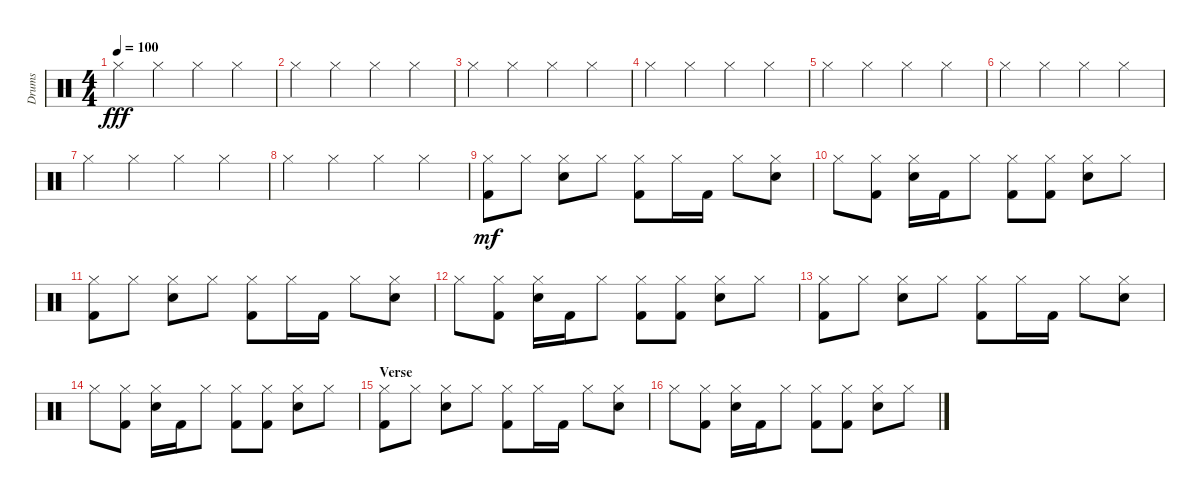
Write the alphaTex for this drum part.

\defaultSystemsLayout 4
\bracketExtendMode groupsimilarinstruments
\otherSystemsTrackNameOrientation horizontal
\track ("Prakarsh" "Drums") {instrument percussion}
\staff {score}
\articulation defaults
\ts (4 4)
\tempo 100
\clef neutral
\ks c "Hi-Hat (closed)".4{dy fff beam Down} "Hi-Hat (closed)".4{beam Down} "Hi-Hat (closed)".4{beam Down} "Hi-Hat (closed)".4{beam Down}
|
"Hi-Hat (closed)".4{beam Down} "Hi-Hat (closed)".4{beam Down} "Hi-Hat (closed)".4{beam Down} "Hi-Hat (closed)".4{beam Down} |
"Hi-Hat (closed)".4{beam Down} "Hi-Hat (closed)".4{beam Down} "Hi-Hat (closed)".4{beam Down} "Hi-Hat (closed)".4{beam Down} |
"Hi-Hat (closed)".4{beam Down} "Hi-Hat (closed)".4{beam Down} "Hi-Hat (closed)".4{beam Down} "Hi-Hat (closed)".4{beam Down} |
"Hi-Hat (closed)".4{beam Down} "Hi-Hat (closed)".4{beam Down} "Hi-Hat (closed)".4{beam Down} "Hi-Hat (closed)".4{beam Down} |
"Hi-Hat (closed)".4{beam Down} "Hi-Hat (closed)".4{beam Down} "Hi-Hat (closed)".4{beam Down} "Hi-Hat (closed)".4{beam Down} |
"Hi-Hat (closed)".4{beam Down} "Hi-Hat (closed)".4{beam Down} "Hi-Hat (closed)".4{beam Down} "Hi-Hat (closed)".4{beam Down} |
"Hi-Hat (closed)".4{beam Down} "Hi-Hat (closed)".4{beam Down} "Hi-Hat (closed)".4{beam Down} "Hi-Hat (closed)".4{beam Down} |
("Hi-Hat (closed)" "Kick (hit) 2").8{dy mf beam Down} "Hi-Hat (closed)".8{beam Down} ("Hi-Hat (closed)" "Snare (hit) 2").8{beam Down} "Hi-Hat (closed)".8{beam Down} ("Hi-Hat (closed)" "Kick (hit) 2").8{beam Down} "Hi-Hat (closed)".16{beam Down} "Kick (hit) 2".16{beam Down} "Hi-Hat (closed)".8{beam Down} ("Hi-Hat (closed)" "Snare (hit) 2").8{beam Down} |
"Hi-Hat (closed)".8{beam Down} ("Hi-Hat (closed)" "Kick (hit) 2").8{beam Down} ("Hi-Hat (closed)" "Snare (hit) 2").16{beam Down} "Kick (hit) 2".16{beam Down} "Hi-Hat (closed)".8{beam Down} ("Hi-Hat (closed)" "Kick (hit) 2").8{beam Down} ("Hi-Hat (closed)" "Kick (hit) 2").8{beam Down} ("Hi-Hat (closed)" "Snare (hit) 2").8{beam Down} "Hi-Hat (closed)".8{beam Down} |
("Hi-Hat (closed)" "Kick (hit) 2").8{beam Down} "Hi-Hat (closed)".8{beam Down} ("Hi-Hat (closed)" "Snare (hit) 2").8{beam Down} "Hi-Hat (closed)".8{beam Down} ("Hi-Hat (closed)" "Kick (hit) 2").8{beam Down} "Hi-Hat (closed)".16{beam Down} "Kick (hit) 2".16{beam Down} "Hi-Hat (closed)".8{beam Down} ("Hi-Hat (closed)" "Snare (hit) 2").8{beam Down} |
"Hi-Hat (closed)".8{beam Down} ("Hi-Hat (closed)" "Kick (hit) 2").8{beam Down} ("Hi-Hat (closed)" "Snare (hit) 2").16{beam Down} "Kick (hit) 2".16{beam Down} "Hi-Hat (closed)".8{beam Down} ("Hi-Hat (closed)" "Kick (hit) 2").8{beam Down} ("Hi-Hat (closed)" "Kick (hit) 2").8{beam Down} ("Hi-Hat (closed)" "Snare (hit) 2").8{beam Down} "Hi-Hat (closed)".8{beam Down} |
("Hi-Hat (closed)" "Kick (hit) 2").8{beam Down} "Hi-Hat (closed)".8{beam Down} ("Hi-Hat (closed)" "Snare (hit) 2").8{beam Down} "Hi-Hat (closed)".8{beam Down} ("Hi-Hat (closed)" "Kick (hit) 2").8{beam Down} "Hi-Hat (closed)".16{beam Down} "Kick (hit) 2".16{beam Down} "Hi-Hat (closed)".8{beam Down} ("Hi-Hat (closed)" "Snare (hit) 2").8{beam Down} |
"Hi-Hat (closed)".8{beam Down} ("Hi-Hat (closed)" "Kick (hit) 2").8{beam Down} ("Hi-Hat (closed)" "Snare (hit) 2").16{beam Down} "Kick (hit) 2".16{beam Down} "Hi-Hat (closed)".8{beam Down} ("Hi-Hat (closed)" "Kick (hit) 2").8{beam Down} ("Hi-Hat (closed)" "Kick (hit) 2").8{beam Down} ("Hi-Hat (closed)" "Snare (hit) 2").8{beam Down} "Hi-Hat (closed)".8{beam Down} |
\section ("" "Verse")
("Hi-Hat (closed)" "Kick (hit) 2").8{beam Down} "Hi-Hat (closed)".8{beam Down} ("Hi-Hat (closed)" "Snare (hit) 2").8{beam Down} "Hi-Hat (closed)".8{beam Down} ("Hi-Hat (closed)" "Kick (hit) 2").8{beam Down} "Hi-Hat (closed)".16{beam Down} "Kick (hit) 2".16{beam Down} "Hi-Hat (closed)".8{beam Down} ("Hi-Hat (closed)" "Snare (hit) 2").8{beam Down} |
"Hi-Hat (closed)".8{beam Down} ("Hi-Hat (closed)" "Kick (hit) 2").8{beam Down} ("Hi-Hat (closed)" "Snare (hit) 2").16{beam Down} "Kick (hit) 2".16{beam Down} "Hi-Hat (closed)".8{beam Down} ("Hi-Hat (closed)" "Kick (hit) 2").8{beam Down} ("Hi-Hat (closed)" "Kick (hit) 2").8{beam Down} ("Hi-Hat (closed)" "Snare (hit) 2").8{beam Down} "Hi-Hat (closed)".8{beam Down}
